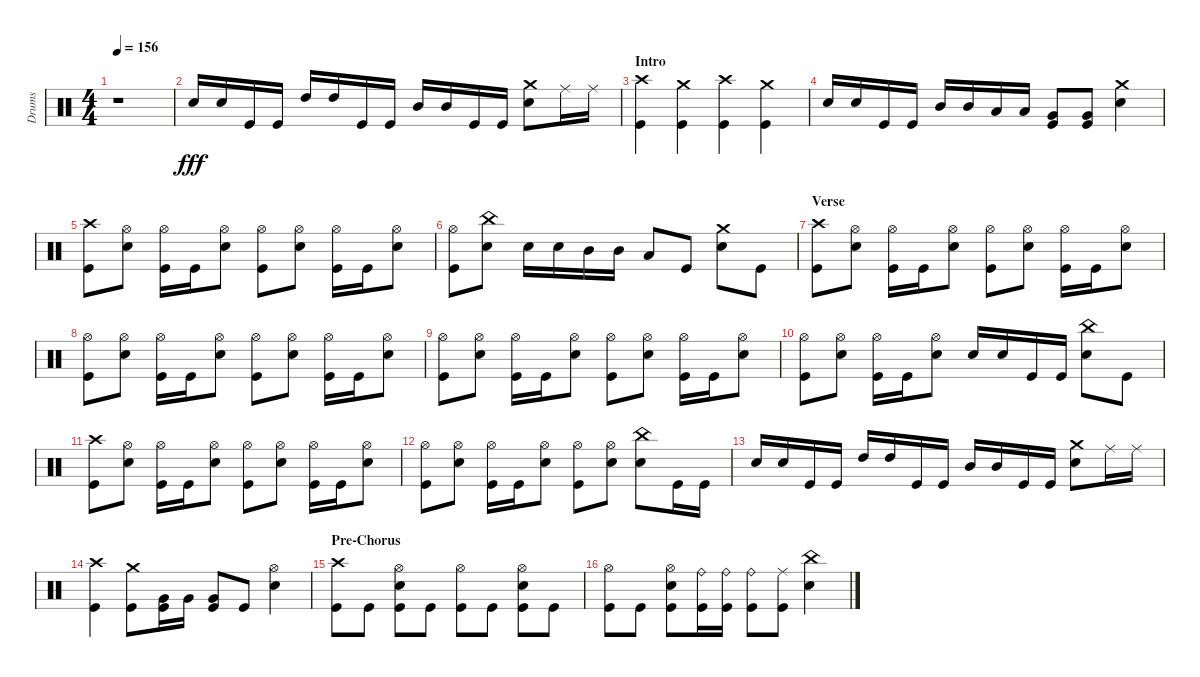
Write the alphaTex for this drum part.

\track ("Drums" "Drums") {instrument percussion}
\staff {score}
\articulation defaults
\ts (4 4)
\tempo 156
\clef neutral
\ks aminor
r.1{dy fff} |
"Snare (hit) 2".16 "Snare (hit) 2".16 "Kick (hit)".16 "Kick (hit)".16 "High Tom (hit)".16 "High Tom (hit)".16 "Kick (hit)".16 "Kick (hit)".16 "Mid Tom (hit)".16 "Mid Tom (hit)".16 "Kick (hit)".16 "Kick (hit)".16 ("Snare (hit) 2" "Crash medium (hit)").8 "Ride (middle)".16 "Ride (middle)".16 |
\section ("" "Intro")
("Crash high (hit)" "Kick (hit)").4 ("Kick (hit)" "Crash medium (hit)").4 ("Crash high (hit)" "Kick (hit)").4 ("Kick (hit)" "Crash medium (hit)").4 |
"Snare (hit) 2".16 "Snare (hit) 2".16 "Kick (hit)".16 "Kick (hit)".16 "Mid Tom (hit)".16 "Mid Tom (hit)".16 "Low Tom (hit)".16 "Low Tom (hit)".16 ("Very Low Tom (hit)" "Kick (hit)").8 ("Very Low Tom (hit)" "Kick (hit)").8 ("Crash medium (hit)" "Snare (hit) 2").4 |
("Kick (hit)" "Crash high (hit)").8 ("Hi-Hat (open)" "Snare (hit) 2").8 ("Hi-Hat (open)" "Kick (hit)").16 "Kick (hit)".16 ("Snare (hit) 2" "Hi-Hat (open)").8 ("Kick (hit)" "Hi-Hat (open)").8 ("Hi-Hat (open)" "Snare (hit) 2").8 ("Kick (hit)" "Hi-Hat (open)").16 "Kick (hit)".16 ("Snare (hit) 2" "Hi-Hat (open)").8 |
("Kick (hit)" "Hi-Hat (open)").8 ("Snare (hit) 2" "China (hit)").8 "Snare (hit) 2".16 "Snare (hit) 2".16 "Mid Tom (hit)".16 "Mid Tom (hit)".16 "Low Tom (hit)".8 "Kick (hit)".8 ("Snare (hit) 2" "Crash medium (hit)").8 "Kick (hit)".8 |
\section ("" "Verse")
("Kick (hit)" "Crash high (hit)").8 ("Snare (hit) 2" "Hi-Hat (open)").8 ("Kick (hit)" "Hi-Hat (open)").16 "Kick (hit)".16 ("Hi-Hat (open)" "Snare (hit) 2").8 ("Hi-Hat (open)" "Kick (hit)").8 ("Snare (hit) 2" "Hi-Hat (open)").8 ("Kick (hit)" "Hi-Hat (open)").16 "Kick (hit)".16 ("Snare (hit) 2" "Hi-Hat (open)").8 |
("Hi-Hat (open)" "Kick (hit)").8 ("Snare (hit) 2" "Hi-Hat (open)").8 ("Kick (hit)" "Hi-Hat (open)").16 "Kick (hit)".16 ("Snare (hit) 2" "Hi-Hat (open)").8 ("Kick (hit)" "Hi-Hat (open)").8 ("Hi-Hat (open)" "Snare (hit) 2").8 ("Hi-Hat (open)" "Kick (hit)").16 "Kick (hit)".16 ("Snare (hit) 2" "Hi-Hat (open)").8 |
("Hi-Hat (open)" "Kick (hit)").8 ("Snare (hit) 2" "Hi-Hat (open)").8 ("Kick (hit)" "Hi-Hat (open)").16 "Kick (hit)".16 ("Hi-Hat (open)" "Snare (hit) 2").8 ("Kick (hit)" "Hi-Hat (open)").8 ("Snare (hit) 2" "Hi-Hat (open)").8 ("Kick (hit)" "Hi-Hat (open)").16 "Kick (hit)".16 ("Snare (hit) 2" "Hi-Hat (open)").8 |
("Hi-Hat (open)" "Kick (hit)").8 ("Hi-Hat (open)" "Snare (hit) 2").8 ("Kick (hit)" "Hi-Hat (open)").16 "Kick (hit)".16 ("Snare (hit) 2" "Hi-Hat (open)").8 "Snare (hit) 2".16 "Snare (hit) 2".16 "Kick (hit)".16 "Kick (hit)".16 ("China (hit)" "Snare (hit) 2").8 "Kick (hit)".8 |
("Kick (hit)" "Crash high (hit)").8 ("Hi-Hat (open)" "Snare (hit) 2").8 ("Kick (hit)" "Hi-Hat (open)").16 "Kick (hit)".16 ("Snare (hit) 2" "Hi-Hat (open)").8 ("Hi-Hat (open)" "Kick (hit)").8 ("Hi-Hat (open)" "Snare (hit) 2").8 ("Kick (hit)" "Hi-Hat (open)").16 "Kick (hit)".16 ("Snare (hit) 2" "Hi-Hat (open)").8 |
("Hi-Hat (open)" "Kick (hit)").8 ("Hi-Hat (open)" "Snare (hit) 2").8 ("Kick (hit)" "Hi-Hat (open)").16 "Kick (hit)".16 ("Snare (hit) 2" "Hi-Hat (open)").8 ("Hi-Hat (open)" "Kick (hit)").8 ("Hi-Hat (open)" "Snare (hit) 2").8 ("Snare (hit) 2" "China (hit)").8 "Kick (hit)".16 "Kick (hit)".16 |
"Snare (hit) 2".16 "Snare (hit) 2".16 "Kick (hit)".16 "Kick (hit)".16 "High Tom (hit)".16 "High Tom (hit)".16 "Kick (hit)".16 "Kick (hit)".16 "Mid Tom (hit)".16 "Mid Tom (hit)".16 "Kick (hit)".16 "Kick (hit)".16 ("Snare (hit) 2" "Crash medium (hit)").8 "Ride (middle)".16 "Ride (middle)".16 |
("Crash high (hit)" "Kick (hit)").4 ("Kick (hit)" "Crash medium (hit)").8 ("Kick (hit)" "Very Low Tom (hit)").16 "Very Low Tom (hit)".16 ("Kick (hit)" "Very Low Tom (hit)").8 "Kick (hit)".8 ("Hi-Hat (open)" "Snare (hit) 2").4 |
\section ("" "Pre-Chorus")
("Kick (hit)" "Crash high (hit)").8 "Kick (hit)".8 ("Kick (hit)" "Hi-Hat (open)" "Snare (hit) 2").8 "Kick (hit)".8 ("Hi-Hat (open)" "Kick (hit)").8 "Kick (hit)".8 ("Snare (hit) 2" "Hi-Hat (open)" "Kick (hit)").8 "Kick (hit)".8 |
("Kick (hit)" "Hi-Hat (open)").8 "Kick (hit)".8 ("Kick (hit)" "Hi-Hat (open)" "Snare (hit) 2").8 ("Kick (hit)" "Ride (bell)").16 ("Ride (bell)" "Kick (hit)").16 ("Ride (bell)" "Kick (hit)").8 ("Kick (hit)" "Ride (middle)").8 ("China (hit)" "Snare (hit) 2").4
